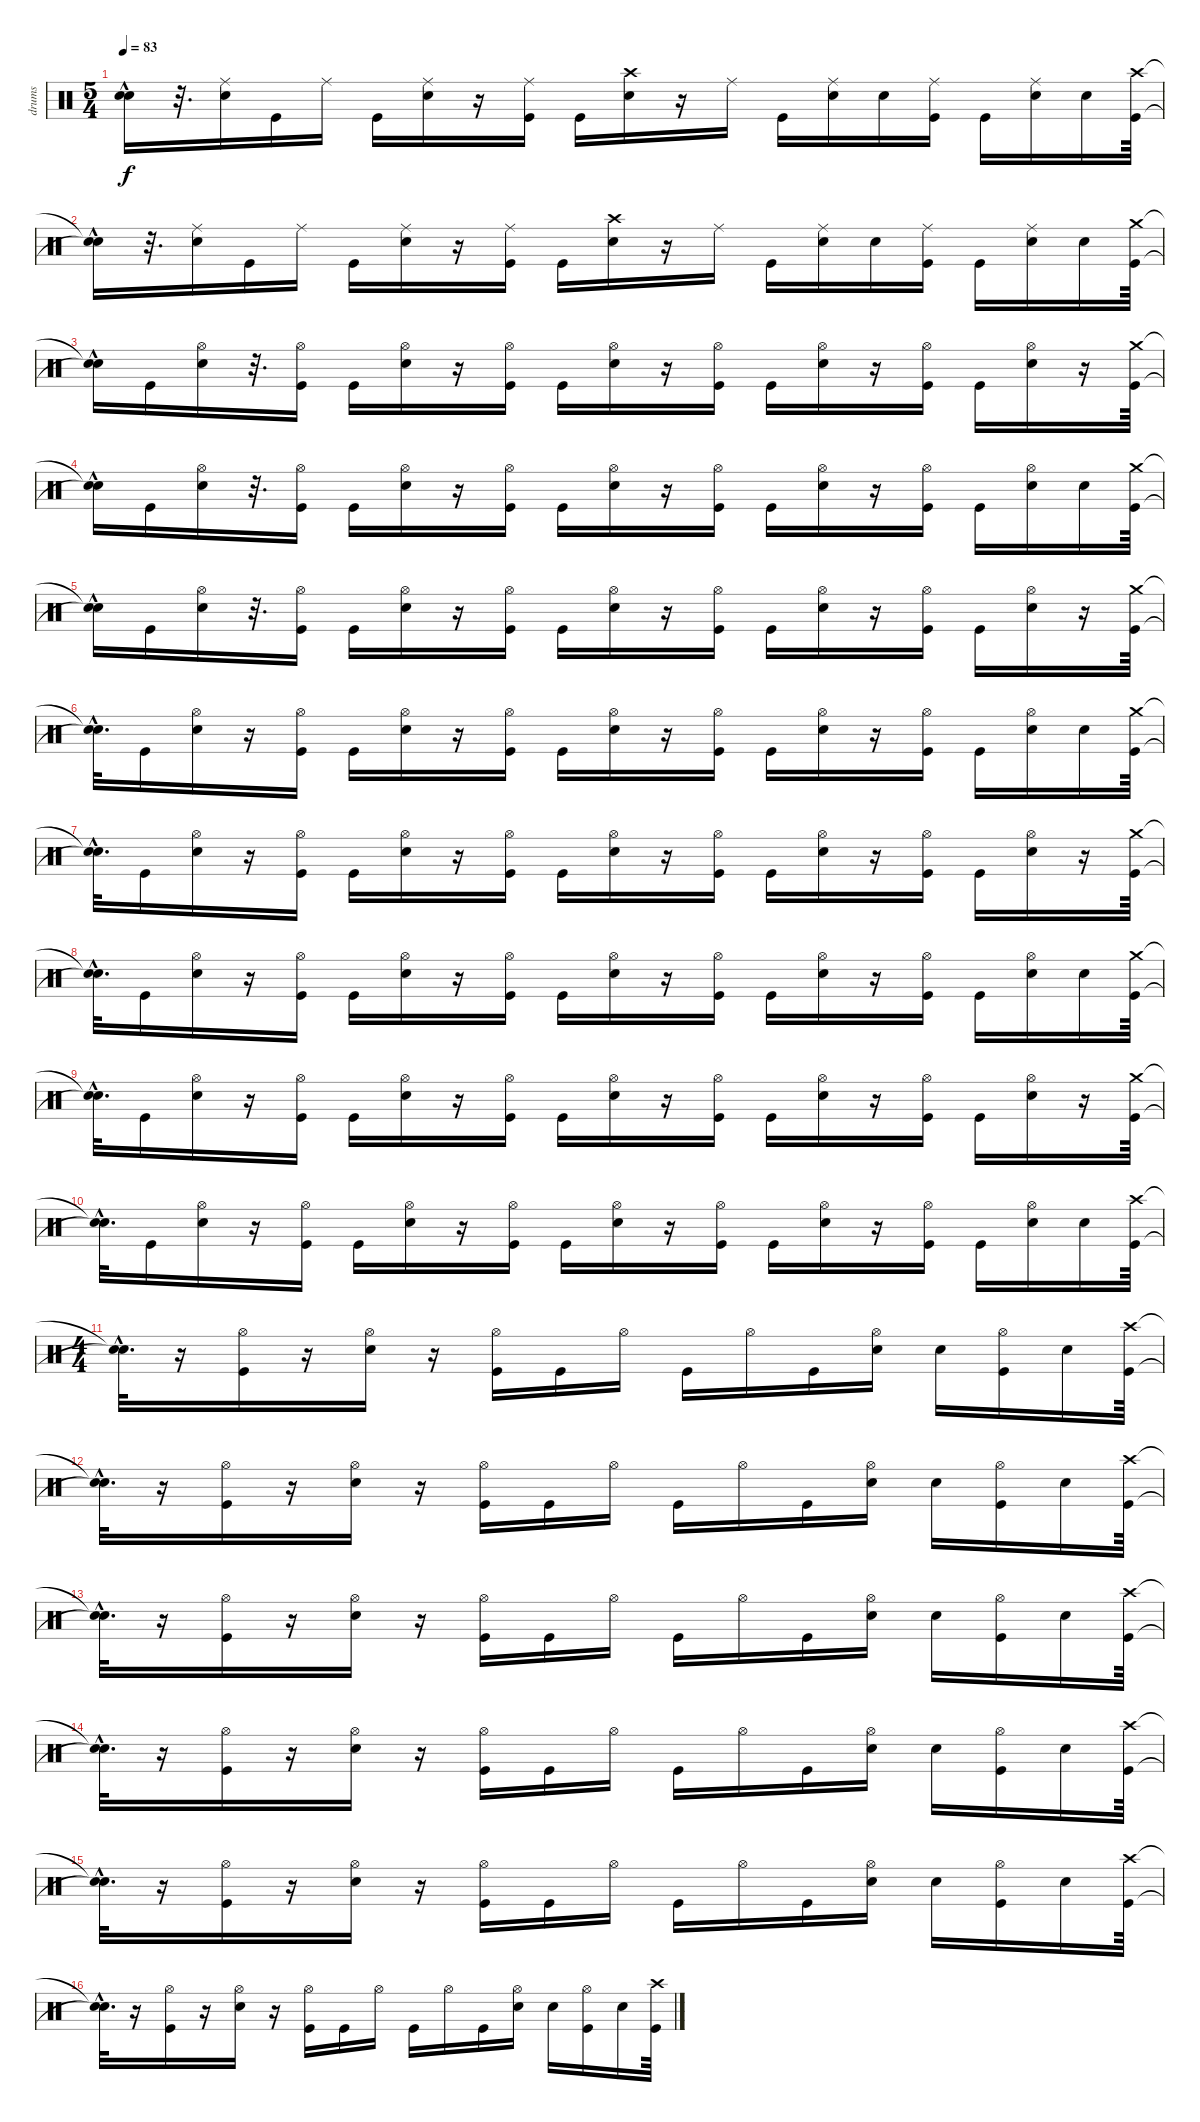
\track ("drums" "drums") {instrument percussion}
\staff {score}
\articulation defaults
\ts (5 4)
\tempo 83
\clef neutral
\ks c
("Snare (hit)"{hac t} "Snare (hit)"{hac t}).16{dy f} r.32{d} ("Electric Snare (hit)" "Ride (middle)").16 "Kick (hit)".16 "Ride (middle)".16 "Kick (hit)".16 ("Electric Snare (hit)" "Ride (middle)").16 r.16 ("Kick (hit)" "Ride (middle)").16 "Kick (hit)".16 ("Crash high (hit)" "Electric Snare (hit)").16 r.16 "Ride (middle)".16 "Kick (hit)".16 ("Ride (middle)" "Electric Snare (hit)").16 "Electric Snare (hit)".16 ("Ride (middle)" "Kick (hit)").16 "Kick (hit)".16 ("Ride (middle)" "Electric Snare (hit)").16 "Electric Snare (hit)".16 ("Crash high (hit)" "Kick (hit)").64 |
("Snare (hit)"{hac t} "Snare (hit)"{hac t}).16 r.32{d} ("Electric Snare (hit)" "Ride (middle)").16 "Kick (hit)".16 "Ride (middle)".16 "Kick (hit)".16 ("Electric Snare (hit)" "Ride (middle)").16 r.16 ("Kick (hit)" "Ride (middle)").16 "Kick (hit)".16 ("Crash high (hit)" "Electric Snare (hit)").16 r.16 "Ride (middle)".16 "Kick (hit)".16 ("Ride (middle)" "Electric Snare (hit)").16 "Electric Snare (hit)".16 ("Ride (middle)" "Kick (hit)").16 "Kick (hit)".16 ("Ride (middle)" "Electric Snare (hit)").16 "Electric Snare (hit)".16 ("Crash medium (hit)" "Kick (hit)").64 |
("Snare (hit)"{hac t} "Snare (hit)"{hac t}).16 "Kick (hit)".16 ("Hi-Hat (open)" "Electric Snare (hit)").16 r.32{d} ("Hi-Hat (open)" "Kick (hit)").16 "Kick (hit)".16 ("Hi-Hat (open)" "Electric Snare (hit)").16 r.16 ("Hi-Hat (open)" "Kick (hit)").16 "Kick (hit)".16 ("Hi-Hat (open)" "Electric Snare (hit)").16 r.16 ("Hi-Hat (open)" "Kick (hit)").16 "Kick (hit)".16 ("Hi-Hat (open)" "Electric Snare (hit)").16 r.16 ("Hi-Hat (open)" "Kick (hit)").16 "Kick (hit)".16 ("Hi-Hat (open)" "Electric Snare (hit)").16 r.16 ("Crash medium (hit)" "Kick (hit)").64 |
("Snare (hit)"{hac t} "Snare (hit)"{hac t}).16 "Kick (hit)".16 ("Hi-Hat (open)" "Electric Snare (hit)").16 r.32{d} ("Hi-Hat (open)" "Kick (hit)").16 "Kick (hit)".16 ("Hi-Hat (open)" "Electric Snare (hit)").16 r.16 ("Hi-Hat (open)" "Kick (hit)").16 "Kick (hit)".16 ("Hi-Hat (open)" "Electric Snare (hit)").16 r.16 ("Hi-Hat (open)" "Kick (hit)").16 "Kick (hit)".16 ("Hi-Hat (open)" "Electric Snare (hit)").16 r.16 ("Hi-Hat (open)" "Kick (hit)").16 "Kick (hit)".16 ("Hi-Hat (open)" "Electric Snare (hit)").16 "Electric Snare (hit)".16 ("Crash medium (hit)" "Kick (hit)").64 |
("Snare (hit)"{hac t} "Snare (hit)"{hac t}).16 "Kick (hit)".16 ("Hi-Hat (open)" "Electric Snare (hit)").16 r.32{d} ("Hi-Hat (open)" "Kick (hit)").16 "Kick (hit)".16 ("Hi-Hat (open)" "Electric Snare (hit)").16 r.16 ("Hi-Hat (open)" "Kick (hit)").16 "Kick (hit)".16 ("Hi-Hat (open)" "Electric Snare (hit)").16 r.16 ("Hi-Hat (open)" "Kick (hit)").16 "Kick (hit)".16 ("Hi-Hat (open)" "Electric Snare (hit)").16 r.16 ("Hi-Hat (open)" "Kick (hit)").16 "Kick (hit)".16 ("Hi-Hat (open)" "Electric Snare (hit)").16 r.16 ("Crash medium (hit)" "Kick (hit)").64 |
("Snare (hit)"{hac t} "Snare (hit)"{hac t}).32{d} "Kick (hit)".16 ("Hi-Hat (open)" "Electric Snare (hit)").16 r.16 ("Hi-Hat (open)" "Kick (hit)").16 "Kick (hit)".16 ("Hi-Hat (open)" "Electric Snare (hit)").16 r.16 ("Hi-Hat (open)" "Kick (hit)").16 "Kick (hit)".16 ("Hi-Hat (open)" "Electric Snare (hit)").16 r.16 ("Hi-Hat (open)" "Kick (hit)").16 "Kick (hit)".16 ("Hi-Hat (open)" "Electric Snare (hit)").16 r.16 ("Hi-Hat (open)" "Kick (hit)").16 "Kick (hit)".16 ("Hi-Hat (open)" "Electric Snare (hit)").16 "Electric Snare (hit)".16 ("Crash medium (hit)" "Kick (hit)").64 |
("Snare (hit)"{hac t} "Snare (hit)"{hac t}).32{d} "Kick (hit)".16 ("Hi-Hat (open)" "Electric Snare (hit)").16 r.16 ("Hi-Hat (open)" "Kick (hit)").16 "Kick (hit)".16 ("Hi-Hat (open)" "Electric Snare (hit)").16 r.16 ("Hi-Hat (open)" "Kick (hit)").16 "Kick (hit)".16 ("Hi-Hat (open)" "Electric Snare (hit)").16 r.16 ("Hi-Hat (open)" "Kick (hit)").16 "Kick (hit)".16 ("Hi-Hat (open)" "Electric Snare (hit)").16 r.16 ("Hi-Hat (open)" "Kick (hit)").16 "Kick (hit)".16 ("Hi-Hat (open)" "Electric Snare (hit)").16 r.16 ("Crash medium (hit)" "Kick (hit)").64 |
("Snare (hit)"{hac t} "Snare (hit)"{hac t}).32{d} "Kick (hit)".16 ("Hi-Hat (open)" "Electric Snare (hit)").16 r.16 ("Hi-Hat (open)" "Kick (hit)").16 "Kick (hit)".16 ("Hi-Hat (open)" "Electric Snare (hit)").16 r.16 ("Hi-Hat (open)" "Kick (hit)").16 "Kick (hit)".16 ("Hi-Hat (open)" "Electric Snare (hit)").16 r.16 ("Hi-Hat (open)" "Kick (hit)").16 "Kick (hit)".16 ("Hi-Hat (open)" "Electric Snare (hit)").16 r.16 ("Hi-Hat (open)" "Kick (hit)").16 "Kick (hit)".16 ("Hi-Hat (open)" "Electric Snare (hit)").16 "Electric Snare (hit)".16 ("Crash medium (hit)" "Kick (hit)").64 |
("Snare (hit)"{hac t} "Snare (hit)"{hac t}).32{d} "Kick (hit)".16 ("Hi-Hat (open)" "Electric Snare (hit)").16 r.16 ("Hi-Hat (open)" "Kick (hit)").16 "Kick (hit)".16 ("Hi-Hat (open)" "Electric Snare (hit)").16 r.16 ("Hi-Hat (open)" "Kick (hit)").16 "Kick (hit)".16 ("Hi-Hat (open)" "Electric Snare (hit)").16 r.16 ("Hi-Hat (open)" "Kick (hit)").16 "Kick (hit)".16 ("Hi-Hat (open)" "Electric Snare (hit)").16 r.16 ("Hi-Hat (open)" "Kick (hit)").16 "Kick (hit)".16 ("Hi-Hat (open)" "Electric Snare (hit)").16 r.16 ("Crash medium (hit)" "Kick (hit)").64 |
("Snare (hit)"{hac t} "Snare (hit)"{hac t}).32{d} "Kick (hit)".16 ("Hi-Hat (open)" "Electric Snare (hit)").16 r.16 ("Hi-Hat (open)" "Kick (hit)").16 "Kick (hit)".16 ("Hi-Hat (open)" "Electric Snare (hit)").16 r.16 ("Hi-Hat (open)" "Kick (hit)").16 "Kick (hit)".16 ("Hi-Hat (open)" "Electric Snare (hit)").16 r.16 ("Hi-Hat (open)" "Kick (hit)").16 "Kick (hit)".16 ("Hi-Hat (open)" "Electric Snare (hit)").16 r.16 ("Hi-Hat (open)" "Kick (hit)").16 "Kick (hit)".16 ("Hi-Hat (open)" "Electric Snare (hit)").16 "Electric Snare (hit)".16 ("Crash high (hit)" "Kick (hit)").64 |
\ts (4 4)
("Snare (hit)"{hac t} "Snare (hit)"{hac t}).32{d} r.16 ("Hi-Hat (open)" "Kick (hit)").16 r.16 ("Hi-Hat (open)" "Electric Snare (hit)").16 r.16 ("Hi-Hat (open)" "Kick (hit)").16 "Kick (hit)".16 "Hi-Hat (open)".16 "Kick (hit)".16 "Hi-Hat (open)".16 "Kick (hit)".16 ("Hi-Hat (open)" "Electric Snare (hit)").16 "Electric Snare (hit)".16 ("Hi-Hat (open)" "Kick (hit)").16 "Electric Snare (hit)".16 ("Crash high (hit)" "Kick (hit)").64 |
("Snare (hit)"{hac t} "Snare (hit)"{hac t}).32{d} r.16 ("Hi-Hat (open)" "Kick (hit)").16 r.16 ("Hi-Hat (open)" "Electric Snare (hit)").16 r.16 ("Hi-Hat (open)" "Kick (hit)").16 "Kick (hit)".16 "Hi-Hat (open)".16 "Kick (hit)".16 "Hi-Hat (open)".16 "Kick (hit)".16 ("Hi-Hat (open)" "Electric Snare (hit)").16 "Electric Snare (hit)".16 ("Hi-Hat (open)" "Kick (hit)").16 "Electric Snare (hit)".16 ("Crash high (hit)" "Kick (hit)").64 |
("Snare (hit)"{hac t} "Snare (hit)"{hac t}).32{d} r.16 ("Hi-Hat (open)" "Kick (hit)").16 r.16 ("Hi-Hat (open)" "Electric Snare (hit)").16 r.16 ("Hi-Hat (open)" "Kick (hit)").16 "Kick (hit)".16 "Hi-Hat (open)".16 "Kick (hit)".16 "Hi-Hat (open)".16 "Kick (hit)".16 ("Hi-Hat (open)" "Electric Snare (hit)").16 "Electric Snare (hit)".16 ("Hi-Hat (open)" "Kick (hit)").16 "Electric Snare (hit)".16 ("Crash high (hit)" "Kick (hit)").64 |
("Snare (hit)"{hac t} "Snare (hit)"{hac t}).32{d} r.16 ("Hi-Hat (open)" "Kick (hit)").16 r.16 ("Hi-Hat (open)" "Electric Snare (hit)").16 r.16 ("Hi-Hat (open)" "Kick (hit)").16 "Kick (hit)".16 "Hi-Hat (open)".16 "Kick (hit)".16 "Hi-Hat (open)".16 "Kick (hit)".16 ("Hi-Hat (open)" "Electric Snare (hit)").16 "Electric Snare (hit)".16 ("Hi-Hat (open)" "Kick (hit)").16 "Electric Snare (hit)".16 ("Crash high (hit)" "Kick (hit)").64 |
("Snare (hit)"{hac t} "Snare (hit)"{hac t}).32{d} r.16 ("Hi-Hat (open)" "Kick (hit)").16 r.16 ("Hi-Hat (open)" "Electric Snare (hit)").16 r.16 ("Hi-Hat (open)" "Kick (hit)").16 "Kick (hit)".16 "Hi-Hat (open)".16 "Kick (hit)".16 "Hi-Hat (open)".16 "Kick (hit)".16 ("Hi-Hat (open)" "Electric Snare (hit)").16 "Electric Snare (hit)".16 ("Hi-Hat (open)" "Kick (hit)").16 "Electric Snare (hit)".16 ("Crash high (hit)" "Kick (hit)").64 |
("Snare (hit)"{hac t} "Snare (hit)"{hac t}).32{d} r.16 ("Hi-Hat (open)" "Kick (hit)").16 r.16 ("Hi-Hat (open)" "Electric Snare (hit)").16 r.16 ("Hi-Hat (open)" "Kick (hit)").16 "Kick (hit)".16 "Hi-Hat (open)".16 "Kick (hit)".16 "Hi-Hat (open)".16 "Kick (hit)".16 ("Hi-Hat (open)" "Electric Snare (hit)").16 "Electric Snare (hit)".16 ("Hi-Hat (open)" "Kick (hit)").16 "Electric Snare (hit)".16 ("Crash high (hit)" "Kick (hit)").64
